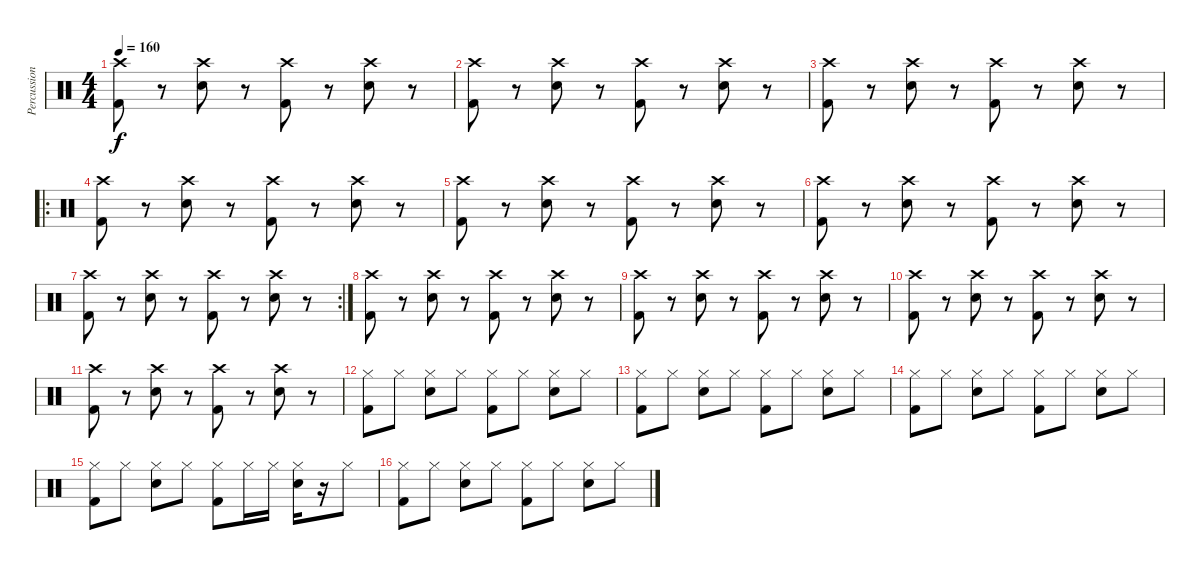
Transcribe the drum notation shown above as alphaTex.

\track ("Percussions" "Percussion") {instrument percussion}
\staff {score}
\articulation defaults
\ts (4 4)
\tempo 160
\clef neutral
\ks c
("Crash high (hit)" "Kick (hit) 2").8{dy f} r.8 ("Crash high (hit)" "Electric Snare (hit)").8 r.8 ("Crash high (hit)" "Kick (hit) 2").8 r.8 ("Crash high (hit)" "Electric Snare (hit)").8 r.8 |
("Crash high (hit)" "Kick (hit) 2").8 r.8 ("Crash high (hit)" "Electric Snare (hit)").8 r.8 ("Crash high (hit)" "Kick (hit) 2").8 r.8 ("Crash high (hit)" "Electric Snare (hit)").8 r.8 |
("Crash high (hit)" "Kick (hit) 2").8 r.8 ("Crash high (hit)" "Electric Snare (hit)").8 r.8 ("Crash high (hit)" "Kick (hit) 2").8 r.8 ("Crash high (hit)" "Electric Snare (hit)").8 r.8 |
\ro
("Crash high (hit)" "Kick (hit) 2").8 r.8 ("Crash high (hit)" "Electric Snare (hit)").8 r.8 ("Crash high (hit)" "Kick (hit) 2").8 r.8 ("Crash high (hit)" "Electric Snare (hit)").8 r.8 |
("Crash high (hit)" "Kick (hit) 2").8 r.8 ("Crash high (hit)" "Electric Snare (hit)").8 r.8 ("Crash high (hit)" "Kick (hit) 2").8 r.8 ("Crash high (hit)" "Electric Snare (hit)").8 r.8 |
("Crash high (hit)" "Kick (hit) 2").8 r.8 ("Crash high (hit)" "Electric Snare (hit)").8 r.8 ("Crash high (hit)" "Kick (hit) 2").8 r.8 ("Crash high (hit)" "Electric Snare (hit)").8 r.8 |
\rc 2
("Crash high (hit)" "Kick (hit) 2").8 r.8 ("Crash high (hit)" "Electric Snare (hit)").8 r.8 ("Crash high (hit)" "Kick (hit) 2").8 r.8 ("Crash high (hit)" "Electric Snare (hit)").8 r.8 |
("Crash high (hit)" "Kick (hit) 2").8 r.8 ("Crash high (hit)" "Electric Snare (hit)").8 r.8 ("Crash high (hit)" "Kick (hit) 2").8 r.8 ("Crash high (hit)" "Electric Snare (hit)").8 r.8 |
("Crash high (hit)" "Kick (hit) 2").8 r.8 ("Crash high (hit)" "Electric Snare (hit)").8 r.8 ("Crash high (hit)" "Kick (hit) 2").8 r.8 ("Crash high (hit)" "Electric Snare (hit)").8 r.8 |
("Crash high (hit)" "Kick (hit) 2").8 r.8 ("Crash high (hit)" "Electric Snare (hit)").8 r.8 ("Crash high (hit)" "Kick (hit) 2").8 r.8 ("Crash high (hit)" "Electric Snare (hit)").8 r.8 |
("Crash high (hit)" "Kick (hit) 2").8 r.8 ("Crash high (hit)" "Electric Snare (hit)").8 r.8 ("Crash high (hit)" "Kick (hit) 2").8 r.8 ("Crash high (hit)" "Electric Snare (hit)").8 r.8 |
("Hi-Hat (closed)" "Kick (hit) 2").8 "Hi-Hat (closed)".8 ("Hi-Hat (closed)" "Electric Snare (hit)").8 "Hi-Hat (closed)".8 ("Hi-Hat (closed)" "Kick (hit) 2").8 "Hi-Hat (closed)".8 ("Hi-Hat (closed)" "Electric Snare (hit)").8 "Hi-Hat (closed)".8 |
("Hi-Hat (closed)" "Kick (hit) 2").8 "Hi-Hat (closed)".8 ("Hi-Hat (closed)" "Electric Snare (hit)").8 "Hi-Hat (closed)".8 ("Hi-Hat (closed)" "Kick (hit) 2").8 "Hi-Hat (closed)".8 ("Hi-Hat (closed)" "Electric Snare (hit)").8 "Hi-Hat (closed)".8 |
("Hi-Hat (closed)" "Kick (hit) 2").8 "Hi-Hat (closed)".8 ("Hi-Hat (closed)" "Electric Snare (hit)").8 "Hi-Hat (closed)".8 ("Hi-Hat (closed)" "Kick (hit) 2").8 "Hi-Hat (closed)".8 ("Hi-Hat (closed)" "Electric Snare (hit)").8 "Hi-Hat (closed)".8 |
("Hi-Hat (closed)" "Kick (hit) 2").8 "Hi-Hat (closed)".8 ("Hi-Hat (closed)" "Electric Snare (hit)").8 "Hi-Hat (closed)".8 ("Hi-Hat (closed)" "Kick (hit) 2").8 "Hi-Hat (closed)".16 "Hi-Hat (closed)".16 ("Hi-Hat (closed)" "Electric Snare (hit)").16 r.16 "Hi-Hat (closed)".8 |
("Hi-Hat (closed)" "Kick (hit) 2").8 "Hi-Hat (closed)".8 ("Hi-Hat (closed)" "Electric Snare (hit)").8 "Hi-Hat (closed)".8 ("Hi-Hat (closed)" "Kick (hit) 2").8 "Hi-Hat (closed)".8 ("Hi-Hat (closed)" "Electric Snare (hit)").8 "Hi-Hat (closed)".8
